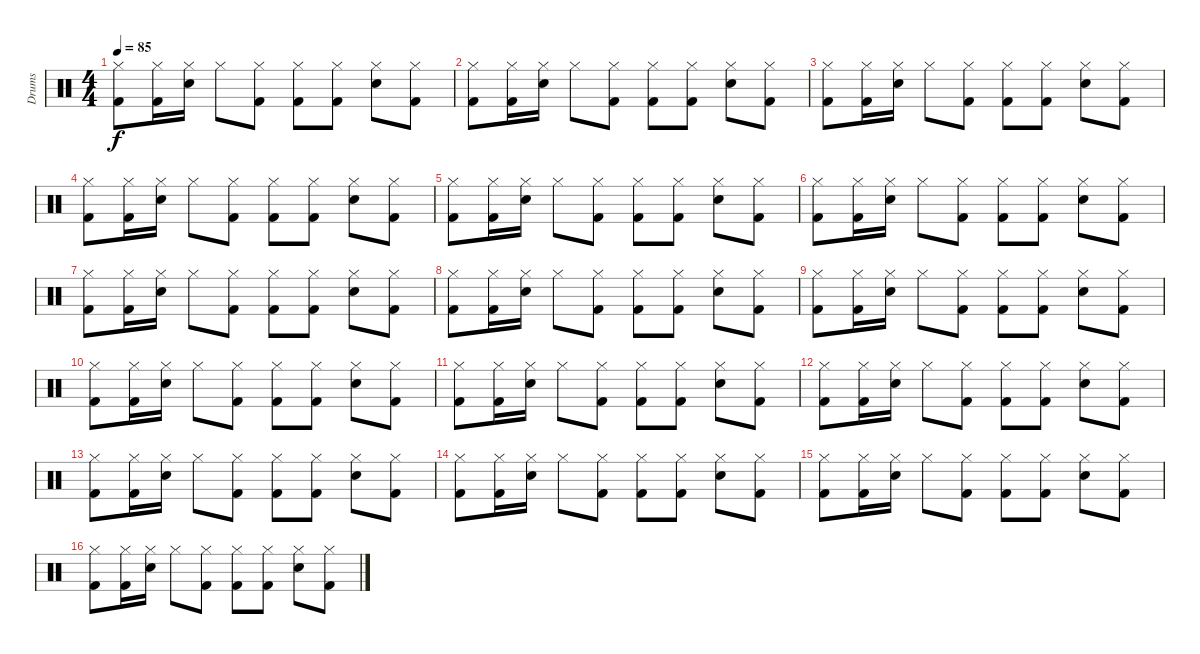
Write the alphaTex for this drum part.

\track ("Drums" "Drums") {instrument percussion}
\staff {score}
\articulation defaults
\ts (4 4)
\tempo 85
\clef neutral
\ks c
("Hi-Hat (closed)" "Kick (hit) 2").8{dy f} ("Hi-Hat (closed)" "Kick (hit) 2").16 ("Snare (hit) 2" "Hi-Hat (closed)").16 "Hi-Hat (closed)".8 ("Hi-Hat (closed)" "Kick (hit) 2").8 ("Hi-Hat (closed)" "Kick (hit) 2").8 ("Hi-Hat (closed)" "Kick (hit) 2").8 ("Snare (hit) 2" "Hi-Hat (closed)").8 ("Hi-Hat (closed)" "Kick (hit) 2").8 |
("Hi-Hat (closed)" "Kick (hit) 2").8 ("Hi-Hat (closed)" "Kick (hit) 2").16 ("Snare (hit) 2" "Hi-Hat (closed)").16 "Hi-Hat (closed)".8 ("Hi-Hat (closed)" "Kick (hit) 2").8 ("Hi-Hat (closed)" "Kick (hit) 2").8 ("Hi-Hat (closed)" "Kick (hit) 2").8 ("Snare (hit) 2" "Hi-Hat (closed)").8 ("Hi-Hat (closed)" "Kick (hit) 2").8 |
("Hi-Hat (closed)" "Kick (hit) 2").8 ("Hi-Hat (closed)" "Kick (hit) 2").16 ("Snare (hit) 2" "Hi-Hat (closed)").16 "Hi-Hat (closed)".8 ("Hi-Hat (closed)" "Kick (hit) 2").8 ("Hi-Hat (closed)" "Kick (hit) 2").8 ("Hi-Hat (closed)" "Kick (hit) 2").8 ("Snare (hit) 2" "Hi-Hat (closed)").8 ("Hi-Hat (closed)" "Kick (hit) 2").8 |
("Hi-Hat (closed)" "Kick (hit) 2").8 ("Hi-Hat (closed)" "Kick (hit) 2").16 ("Snare (hit) 2" "Hi-Hat (closed)").16 "Hi-Hat (closed)".8 ("Hi-Hat (closed)" "Kick (hit) 2").8 ("Hi-Hat (closed)" "Kick (hit) 2").8 ("Hi-Hat (closed)" "Kick (hit) 2").8 ("Snare (hit) 2" "Hi-Hat (closed)").8 ("Hi-Hat (closed)" "Kick (hit) 2").8 |
("Hi-Hat (closed)" "Kick (hit) 2").8 ("Hi-Hat (closed)" "Kick (hit) 2").16 ("Snare (hit) 2" "Hi-Hat (closed)").16 "Hi-Hat (closed)".8 ("Hi-Hat (closed)" "Kick (hit) 2").8 ("Hi-Hat (closed)" "Kick (hit) 2").8 ("Hi-Hat (closed)" "Kick (hit) 2").8 ("Snare (hit) 2" "Hi-Hat (closed)").8 ("Hi-Hat (closed)" "Kick (hit) 2").8 |
("Hi-Hat (closed)" "Kick (hit) 2").8 ("Hi-Hat (closed)" "Kick (hit) 2").16 ("Snare (hit) 2" "Hi-Hat (closed)").16 "Hi-Hat (closed)".8 ("Hi-Hat (closed)" "Kick (hit) 2").8 ("Hi-Hat (closed)" "Kick (hit) 2").8 ("Hi-Hat (closed)" "Kick (hit) 2").8 ("Snare (hit) 2" "Hi-Hat (closed)").8 ("Hi-Hat (closed)" "Kick (hit) 2").8 |
("Hi-Hat (closed)" "Kick (hit) 2").8 ("Hi-Hat (closed)" "Kick (hit) 2").16 ("Snare (hit) 2" "Hi-Hat (closed)").16 "Hi-Hat (closed)".8 ("Hi-Hat (closed)" "Kick (hit) 2").8 ("Hi-Hat (closed)" "Kick (hit) 2").8 ("Hi-Hat (closed)" "Kick (hit) 2").8 ("Snare (hit) 2" "Hi-Hat (closed)").8 ("Hi-Hat (closed)" "Kick (hit) 2").8 |
("Hi-Hat (closed)" "Kick (hit) 2").8 ("Hi-Hat (closed)" "Kick (hit) 2").16 ("Snare (hit) 2" "Hi-Hat (closed)").16 "Hi-Hat (closed)".8 ("Hi-Hat (closed)" "Kick (hit) 2").8 ("Hi-Hat (closed)" "Kick (hit) 2").8 ("Hi-Hat (closed)" "Kick (hit) 2").8 ("Snare (hit) 2" "Hi-Hat (closed)").8 ("Hi-Hat (closed)" "Kick (hit) 2").8 |
("Hi-Hat (closed)" "Kick (hit) 2").8 ("Hi-Hat (closed)" "Kick (hit) 2").16 ("Snare (hit) 2" "Hi-Hat (closed)").16 "Hi-Hat (closed)".8 ("Hi-Hat (closed)" "Kick (hit) 2").8 ("Hi-Hat (closed)" "Kick (hit) 2").8 ("Hi-Hat (closed)" "Kick (hit) 2").8 ("Snare (hit) 2" "Hi-Hat (closed)").8 ("Hi-Hat (closed)" "Kick (hit) 2").8 |
("Hi-Hat (closed)" "Kick (hit) 2").8 ("Hi-Hat (closed)" "Kick (hit) 2").16 ("Snare (hit) 2" "Hi-Hat (closed)").16 "Hi-Hat (closed)".8 ("Hi-Hat (closed)" "Kick (hit) 2").8 ("Hi-Hat (closed)" "Kick (hit) 2").8 ("Hi-Hat (closed)" "Kick (hit) 2").8 ("Snare (hit) 2" "Hi-Hat (closed)").8 ("Hi-Hat (closed)" "Kick (hit) 2").8 |
("Hi-Hat (closed)" "Kick (hit) 2").8 ("Hi-Hat (closed)" "Kick (hit) 2").16 ("Snare (hit) 2" "Hi-Hat (closed)").16 "Hi-Hat (closed)".8 ("Hi-Hat (closed)" "Kick (hit) 2").8 ("Hi-Hat (closed)" "Kick (hit) 2").8 ("Hi-Hat (closed)" "Kick (hit) 2").8 ("Snare (hit) 2" "Hi-Hat (closed)").8 ("Hi-Hat (closed)" "Kick (hit) 2").8 |
("Hi-Hat (closed)" "Kick (hit) 2").8 ("Hi-Hat (closed)" "Kick (hit) 2").16 ("Snare (hit) 2" "Hi-Hat (closed)").16 "Hi-Hat (closed)".8 ("Hi-Hat (closed)" "Kick (hit) 2").8 ("Hi-Hat (closed)" "Kick (hit) 2").8 ("Hi-Hat (closed)" "Kick (hit) 2").8 ("Snare (hit) 2" "Hi-Hat (closed)").8 ("Hi-Hat (closed)" "Kick (hit) 2").8 |
("Hi-Hat (closed)" "Kick (hit) 2").8 ("Hi-Hat (closed)" "Kick (hit) 2").16 ("Snare (hit) 2" "Hi-Hat (closed)").16 "Hi-Hat (closed)".8 ("Hi-Hat (closed)" "Kick (hit) 2").8 ("Hi-Hat (closed)" "Kick (hit) 2").8 ("Hi-Hat (closed)" "Kick (hit) 2").8 ("Snare (hit) 2" "Hi-Hat (closed)").8 ("Hi-Hat (closed)" "Kick (hit) 2").8 |
("Hi-Hat (closed)" "Kick (hit) 2").8 ("Hi-Hat (closed)" "Kick (hit) 2").16 ("Snare (hit) 2" "Hi-Hat (closed)").16 "Hi-Hat (closed)".8 ("Hi-Hat (closed)" "Kick (hit) 2").8 ("Hi-Hat (closed)" "Kick (hit) 2").8 ("Hi-Hat (closed)" "Kick (hit) 2").8 ("Snare (hit) 2" "Hi-Hat (closed)").8 ("Hi-Hat (closed)" "Kick (hit) 2").8 |
("Hi-Hat (closed)" "Kick (hit) 2").8 ("Hi-Hat (closed)" "Kick (hit) 2").16 ("Snare (hit) 2" "Hi-Hat (closed)").16 "Hi-Hat (closed)".8 ("Hi-Hat (closed)" "Kick (hit) 2").8 ("Hi-Hat (closed)" "Kick (hit) 2").8 ("Hi-Hat (closed)" "Kick (hit) 2").8 ("Snare (hit) 2" "Hi-Hat (closed)").8 ("Hi-Hat (closed)" "Kick (hit) 2").8 |
("Hi-Hat (closed)" "Kick (hit) 2").8 ("Hi-Hat (closed)" "Kick (hit) 2").16 ("Snare (hit) 2" "Hi-Hat (closed)").16 "Hi-Hat (closed)".8 ("Hi-Hat (closed)" "Kick (hit) 2").8 ("Hi-Hat (closed)" "Kick (hit) 2").8 ("Hi-Hat (closed)" "Kick (hit) 2").8 ("Snare (hit) 2" "Hi-Hat (closed)").8 ("Hi-Hat (closed)" "Kick (hit) 2").8
